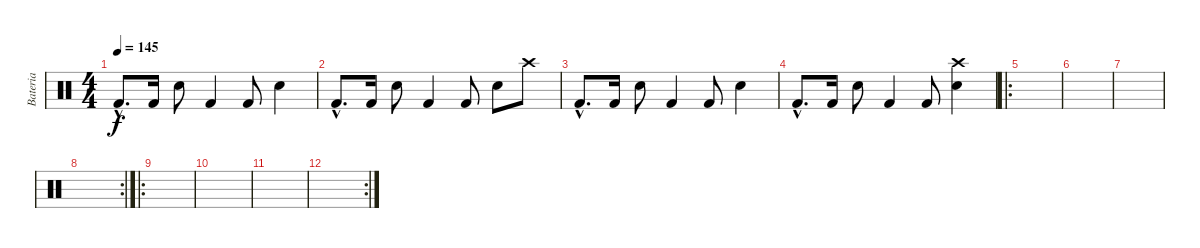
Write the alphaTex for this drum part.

\track (" Bateria" " Bateria") {instrument percussion}
\staff {score}
\articulation defaults
\ts (4 4)
\tempo 145
\clef neutral
\ks c "Kick (hit) 2"{hac}.8{d dy f} "Kick (hit) 2".16 "Snare (hit) 2".8 "Kick (hit) 2".4 "Kick (hit) 2".8 "Snare (hit) 2".4
|
"Kick (hit) 2"{hac}.8{d} "Kick (hit) 2".16 "Snare (hit) 2".8 "Kick (hit) 2".4 "Kick (hit) 2".8 "Snare (hit) 2".8 "Crash high (hit)".8 |
"Kick (hit) 2"{hac}.8{d} "Kick (hit) 2".16 "Snare (hit) 2".8 "Kick (hit) 2".4 "Kick (hit) 2".8 "Snare (hit) 2".4 |
"Kick (hit) 2"{hac}.8{d} "Kick (hit) 2".16 "Snare (hit) 2".8 "Kick (hit) 2".4 "Kick (hit) 2".8 ("Crash high (hit)" "Snare (hit) 2").4 |
\ro
|
|
|
\rc 2
|
\ro
|
|
|
\rc 2
